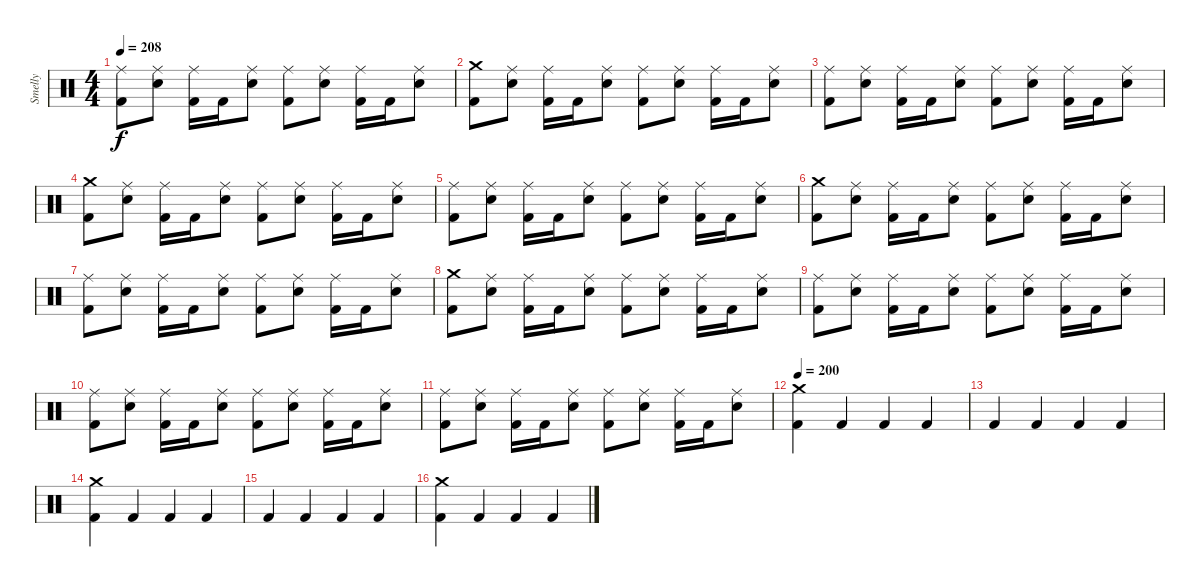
\track ("Smelly" "Smelly") {instrument percussion}
\staff {score}
\articulation defaults
\ts (4 4)
\tempo 208
\clef neutral
\ks c
("Kick (hit) 2" "Ride (middle)").8{dy f} ("Ride (middle)" "Electric Snare (hit)").8 ("Kick (hit) 2" "Ride (middle)").16 "Kick (hit) 2".16 ("Ride (middle)" "Electric Snare (hit)").8 ("Kick (hit) 2" "Ride (middle)").8 ("Ride (middle)" "Electric Snare (hit)").8 ("Kick (hit) 2" "Ride (middle)").16 "Kick (hit) 2".16 ("Ride (middle)" "Electric Snare (hit)").8 |
("Crash medium (hit)" "Kick (hit) 2").8 ("Ride (middle)" "Electric Snare (hit)").8 ("Kick (hit) 2" "Ride (middle)").16 "Kick (hit) 2".16 ("Ride (middle)" "Electric Snare (hit)").8 ("Kick (hit) 2" "Ride (middle)").8 ("Ride (middle)" "Electric Snare (hit)").8 ("Kick (hit) 2" "Ride (middle)").16 "Kick (hit) 2".16 ("Ride (middle)" "Electric Snare (hit)").8 |
("Kick (hit) 2" "Ride (middle)").8 ("Ride (middle)" "Electric Snare (hit)").8 ("Kick (hit) 2" "Ride (middle)").16 "Kick (hit) 2".16 ("Ride (middle)" "Electric Snare (hit)").8 ("Kick (hit) 2" "Ride (middle)").8 ("Ride (middle)" "Electric Snare (hit)").8 ("Kick (hit) 2" "Ride (middle)").16 "Kick (hit) 2".16 ("Ride (middle)" "Electric Snare (hit)").8 |
("Crash medium (hit)" "Kick (hit) 2").8 ("Ride (middle)" "Electric Snare (hit)").8 ("Kick (hit) 2" "Ride (middle)").16 "Kick (hit) 2".16 ("Ride (middle)" "Electric Snare (hit)").8 ("Kick (hit) 2" "Ride (middle)").8 ("Ride (middle)" "Electric Snare (hit)").8 ("Kick (hit) 2" "Ride (middle)").16 "Kick (hit) 2".16 ("Ride (middle)" "Electric Snare (hit)").8 |
("Kick (hit) 2" "Ride (middle)").8 ("Ride (middle)" "Electric Snare (hit)").8 ("Kick (hit) 2" "Ride (middle)").16 "Kick (hit) 2".16 ("Ride (middle)" "Electric Snare (hit)").8 ("Kick (hit) 2" "Ride (middle)").8 ("Ride (middle)" "Electric Snare (hit)").8 ("Kick (hit) 2" "Ride (middle)").16 "Kick (hit) 2".16 ("Ride (middle)" "Electric Snare (hit)").8 |
("Crash medium (hit)" "Kick (hit) 2").8 ("Ride (middle)" "Electric Snare (hit)").8 ("Kick (hit) 2" "Ride (middle)").16 "Kick (hit) 2".16 ("Ride (middle)" "Electric Snare (hit)").8 ("Kick (hit) 2" "Ride (middle)").8 ("Ride (middle)" "Electric Snare (hit)").8 ("Kick (hit) 2" "Ride (middle)").16 "Kick (hit) 2".16 ("Ride (middle)" "Electric Snare (hit)").8 |
("Kick (hit) 2" "Ride (middle)").8 ("Ride (middle)" "Electric Snare (hit)").8 ("Kick (hit) 2" "Ride (middle)").16 "Kick (hit) 2".16 ("Ride (middle)" "Electric Snare (hit)").8 ("Kick (hit) 2" "Ride (middle)").8 ("Ride (middle)" "Electric Snare (hit)").8 ("Kick (hit) 2" "Ride (middle)").16 "Kick (hit) 2".16 ("Ride (middle)" "Electric Snare (hit)").8 |
("Crash medium (hit)" "Kick (hit) 2").8 ("Ride (middle)" "Electric Snare (hit)").8 ("Kick (hit) 2" "Ride (middle)").16 "Kick (hit) 2".16 ("Ride (middle)" "Electric Snare (hit)").8 ("Kick (hit) 2" "Ride (middle)").8 ("Ride (middle)" "Electric Snare (hit)").8 ("Kick (hit) 2" "Ride (middle)").16 "Kick (hit) 2".16 ("Ride (middle)" "Electric Snare (hit)").8 |
("Kick (hit) 2" "Ride (middle)").8 ("Ride (middle)" "Electric Snare (hit)").8 ("Kick (hit) 2" "Ride (middle)").16 "Kick (hit) 2".16 ("Ride (middle)" "Electric Snare (hit)").8 ("Kick (hit) 2" "Ride (middle)").8 ("Ride (middle)" "Electric Snare (hit)").8 ("Kick (hit) 2" "Ride (middle)").16 "Kick (hit) 2".16 ("Ride (middle)" "Electric Snare (hit)").8 |
("Kick (hit) 2" "Ride (middle)").8 ("Ride (middle)" "Electric Snare (hit)").8 ("Kick (hit) 2" "Ride (middle)").16 "Kick (hit) 2".16 ("Ride (middle)" "Electric Snare (hit)").8 ("Kick (hit) 2" "Ride (middle)").8 ("Ride (middle)" "Electric Snare (hit)").8 ("Kick (hit) 2" "Ride (middle)").16 "Kick (hit) 2".16 ("Ride (middle)" "Electric Snare (hit)").8 |
("Kick (hit) 2" "Ride (middle)").8 ("Ride (middle)" "Electric Snare (hit)").8 ("Kick (hit) 2" "Ride (middle)").16 "Kick (hit) 2".16 ("Ride (middle)" "Electric Snare (hit)").8 ("Kick (hit) 2" "Ride (middle)").8 ("Ride (middle)" "Electric Snare (hit)").8 ("Kick (hit) 2" "Ride (middle)").16 "Kick (hit) 2".16 ("Ride (middle)" "Electric Snare (hit)").8 |
\tempo 200
("Crash medium (hit)" "Kick (hit) 2").4 "Kick (hit) 2".4 "Kick (hit) 2".4 "Kick (hit) 2".4 |
"Kick (hit) 2".4 "Kick (hit) 2".4 "Kick (hit) 2".4 "Kick (hit) 2".4 |
("Crash medium (hit)" "Kick (hit) 2").4 "Kick (hit) 2".4 "Kick (hit) 2".4 "Kick (hit) 2".4 |
"Kick (hit) 2".4 "Kick (hit) 2".4 "Kick (hit) 2".4 "Kick (hit) 2".4 |
("Crash medium (hit)" "Kick (hit) 2").4 "Kick (hit) 2".4 "Kick (hit) 2".4 "Kick (hit) 2".4
